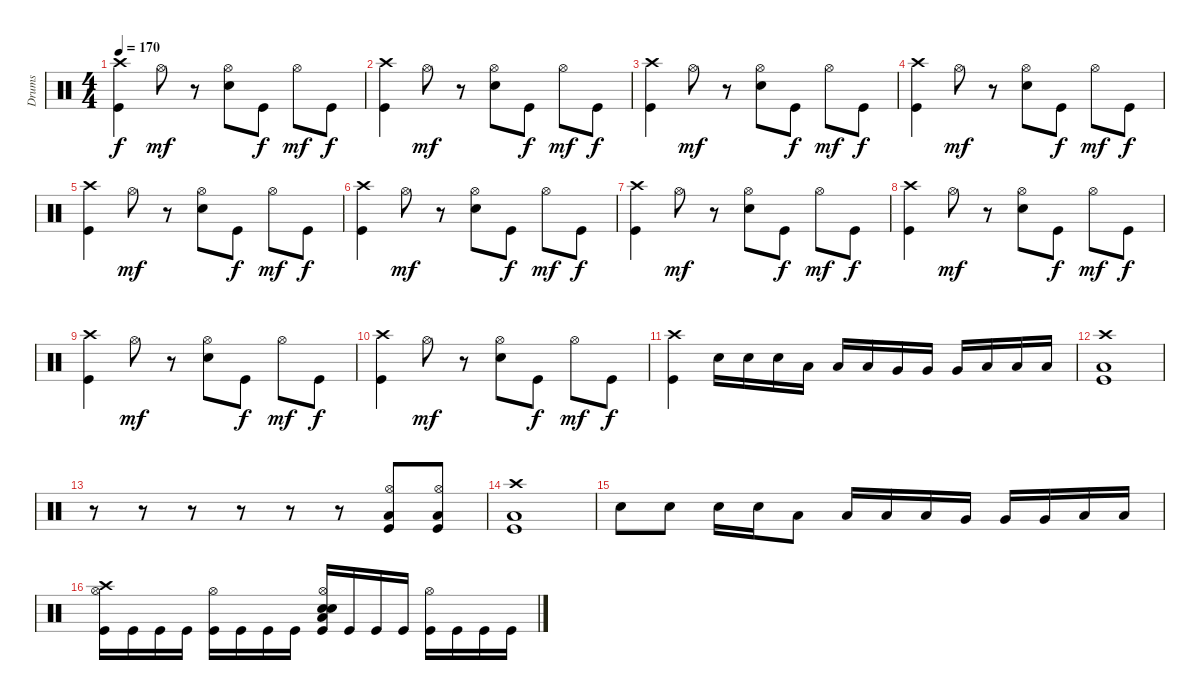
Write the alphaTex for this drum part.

\track ("Drums" "Drums") {instrument percussion}
\staff {score}
\articulation defaults
\ts (4 4)
\tempo 170
\clef neutral
\ks c
("Kick (hit)" "Crash high (hit)").4{dy f} "Hi-Hat (open)".8{dy mf} r.8 ("Electric Snare (hit)" "Hi-Hat (open)").8 "Kick (hit)".8{dy f} "Hi-Hat (open)".8{dy mf} "Kick (hit)".8{dy f} |
("Kick (hit)" "Crash high (hit)").4 "Hi-Hat (open)".8{dy mf} r.8 ("Electric Snare (hit)" "Hi-Hat (open)").8 "Kick (hit)".8{dy f} "Hi-Hat (open)".8{dy mf} "Kick (hit)".8{dy f} |
("Kick (hit)" "Crash high (hit)").4 "Hi-Hat (open)".8{dy mf} r.8 ("Electric Snare (hit)" "Hi-Hat (open)").8 "Kick (hit)".8{dy f} "Hi-Hat (open)".8{dy mf} "Kick (hit)".8{dy f} |
("Kick (hit)" "Crash high (hit)").4 "Hi-Hat (open)".8{dy mf} r.8 ("Electric Snare (hit)" "Hi-Hat (open)").8 "Kick (hit)".8{dy f} "Hi-Hat (open)".8{dy mf} "Kick (hit)".8{dy f} |
("Kick (hit)" "Crash high (hit)").4 "Hi-Hat (open)".8{dy mf} r.8 ("Electric Snare (hit)" "Hi-Hat (open)").8 "Kick (hit)".8{dy f} "Hi-Hat (open)".8{dy mf} "Kick (hit)".8{dy f} |
("Kick (hit)" "Crash high (hit)").4 "Hi-Hat (open)".8{dy mf} r.8 ("Electric Snare (hit)" "Hi-Hat (open)").8 "Kick (hit)".8{dy f} "Hi-Hat (open)".8{dy mf} "Kick (hit)".8{dy f} |
("Kick (hit)" "Crash high (hit)").4 "Hi-Hat (open)".8{dy mf} r.8 ("Electric Snare (hit)" "Hi-Hat (open)").8 "Kick (hit)".8{dy f} "Hi-Hat (open)".8{dy mf} "Kick (hit)".8{dy f} |
("Kick (hit)" "Crash high (hit)").4 "Hi-Hat (open)".8{dy mf} r.8 ("Electric Snare (hit)" "Hi-Hat (open)").8 "Kick (hit)".8{dy f} "Hi-Hat (open)".8{dy mf} "Kick (hit)".8{dy f} |
("Kick (hit)" "Crash high (hit)").4 "Hi-Hat (open)".8{dy mf} r.8 ("Electric Snare (hit)" "Hi-Hat (open)").8 "Kick (hit)".8{dy f} "Hi-Hat (open)".8{dy mf} "Kick (hit)".8{dy f} |
("Kick (hit)" "Crash high (hit)").4 "Hi-Hat (open)".8{dy mf} r.8 ("Electric Snare (hit)" "Hi-Hat (open)").8 "Kick (hit)".8{dy f} "Hi-Hat (open)".8{dy mf} "Kick (hit)".8{dy f} |
("Kick (hit)" "Crash high (hit)").4 "Electric Snare (hit)".16 "Electric Snare (hit)".16 "Electric Snare (hit)".16 "Low Tom (hit)".16 "Low Tom (hit)".16 "Low Tom (hit)".16 "Very Low Tom (hit)".16 "Very Low Tom (hit)".16 "Very Low Tom (hit)".16 "Low Floor Tom (hit)".16 "Low Floor Tom (hit)".16 "Low Floor Tom (hit)".16 |
("Crash high (hit)" "Low Floor Tom (hit)" "Kick (hit)").1 |
r.8 r.8 r.8 r.8 r.8 r.8 ("Hi-Hat (open)" "Low Floor Tom (hit)" "Kick (hit)").8 ("Hi-Hat (open)" "Low Floor Tom (hit)" "Kick (hit)").8 |
("Crash high (hit)" "Low Floor Tom (hit)" "Kick (hit)").1 |
"Electric Snare (hit)".8 "Electric Snare (hit)".8 "Electric Snare (hit)".16 "Electric Snare (hit)".16 "Low Floor Tom (hit)".8 "Low Tom (hit)".16 "Low Tom (hit)".16 "Low Tom (hit)".16 "Very Low Tom (hit)".16 "Very Low Tom (hit)".16 "Very Low Tom (hit)".16 "Low Floor Tom (hit)".16 "Low Floor Tom (hit)".16 |
("Crash high (hit)" "Hi-Hat (open)" "Kick (hit)").16 "Kick (hit)".16 "Kick (hit)".16 "Kick (hit)".16 ("Hi-Hat (open)" "Kick (hit)").16 "Kick (hit)".16 "Kick (hit)".16 "Kick (hit)".16 ("Low Floor Tom (hit)" "Hi-Hat (open)" "Electric Snare (hit)" "Electric Snare (hit)" "Kick (hit)").16 "Kick (hit)".16 "Kick (hit)".16 "Kick (hit)".16 ("Hi-Hat (open)" "Kick (hit)").16 "Kick (hit)".16 "Kick (hit)".16 "Kick (hit)".16
